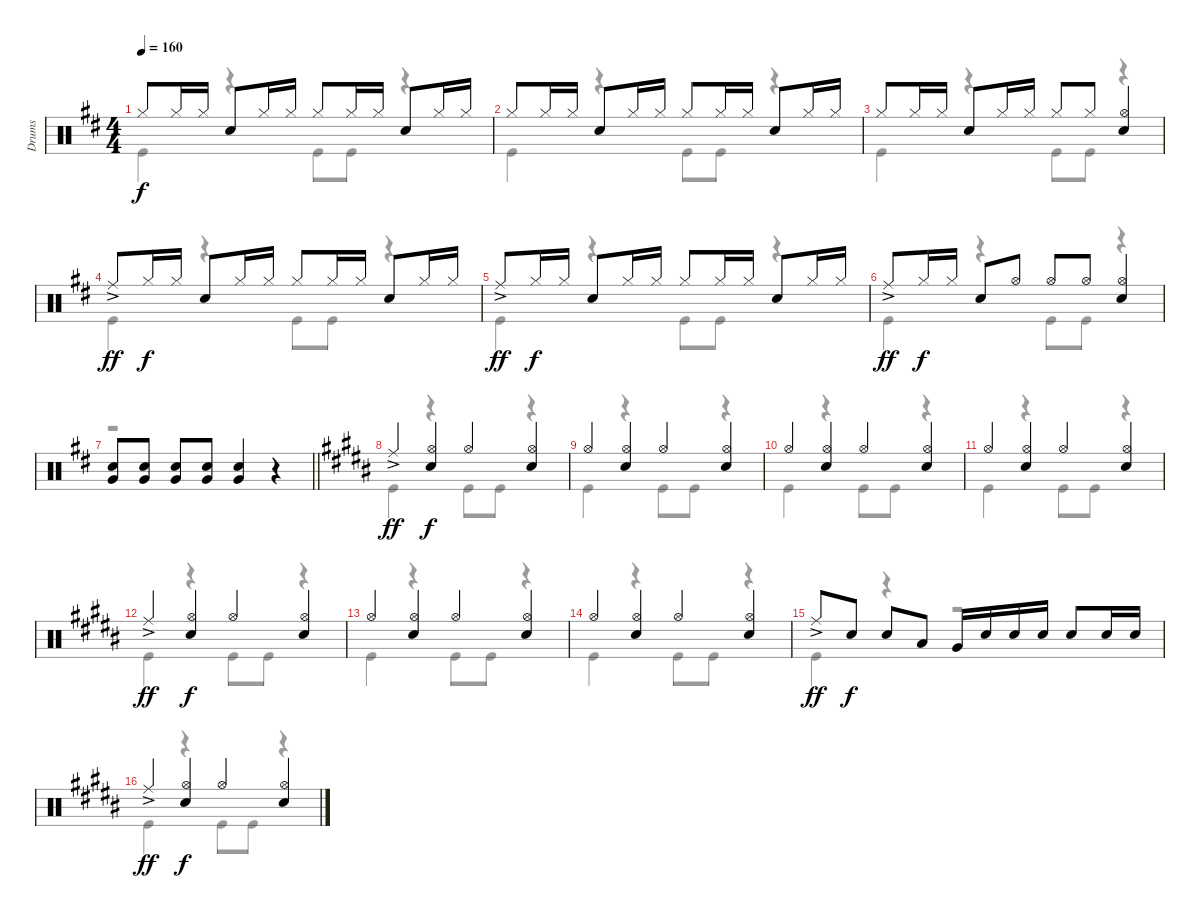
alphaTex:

\track ("Drums" "Drums") {instrument percussion}
\staff {score}
\articulation defaults
\voice
\ts (4 4)
\tempo 160
\clef neutral
\ks d "Hi-Hat (closed)".8{dy f} "Hi-Hat (closed)".16 "Hi-Hat (closed)".16 "Snare (hit) 2".8 "Hi-Hat (closed)".16 "Hi-Hat (closed)".16 "Hi-Hat (closed)".8 "Hi-Hat (closed)".16 "Hi-Hat (closed)".16 "Snare (hit) 2".8 "Hi-Hat (closed)".16 "Hi-Hat (closed)".16
|
"Hi-Hat (closed)".8 "Hi-Hat (closed)".16 "Hi-Hat (closed)".16 "Snare (hit) 2".8 "Hi-Hat (closed)".16 "Hi-Hat (closed)".16 "Hi-Hat (closed)".8 "Hi-Hat (closed)".16 "Hi-Hat (closed)".16 "Snare (hit) 2".8 "Hi-Hat (closed)".16 "Hi-Hat (closed)".16 |
"Hi-Hat (closed)".8 "Hi-Hat (closed)".16 "Hi-Hat (closed)".16 "Snare (hit) 2".8 "Hi-Hat (closed)".16 "Hi-Hat (closed)".16 "Hi-Hat (closed)".8 "Hi-Hat (closed)".8 ("Hi-Hat (open)" "Snare (hit) 2").4 |
"Ride (middle)"{ac}.8{dy ff} "Hi-Hat (closed)".16{dy f} "Hi-Hat (closed)".16 "Snare (hit) 2".8 "Hi-Hat (closed)".16 "Hi-Hat (closed)".16 "Hi-Hat (closed)".8 "Hi-Hat (closed)".16 "Hi-Hat (closed)".16 "Snare (hit) 2".8 "Hi-Hat (closed)".16 "Hi-Hat (closed)".16 |
"Ride (middle)"{ac}.8{dy ff} "Hi-Hat (closed)".16{dy f} "Hi-Hat (closed)".16 "Snare (hit) 2".8 "Hi-Hat (closed)".16 "Hi-Hat (closed)".16 "Hi-Hat (closed)".8 "Hi-Hat (closed)".16 "Hi-Hat (closed)".16 "Snare (hit) 2".8 "Hi-Hat (closed)".16 "Hi-Hat (closed)".16 |
"Ride (middle)"{ac}.8{dy ff} "Hi-Hat (closed)".16{dy f} "Hi-Hat (closed)".16 "Snare (hit) 2".8 "Hi-Hat (open)".8 "Hi-Hat (open)".8 "Hi-Hat (open)".8 ("Hi-Hat (open)" "Snare (hit) 2").4 |
\barLineRight lightlight
("Snare (hit) 2" "Very Low Tom (hit)").8 ("Snare (hit) 2" "Very Low Tom (hit)").8 ("Snare (hit) 2" "Very Low Tom (hit)").8 ("Snare (hit) 2" "Very Low Tom (hit)").8 ("Snare (hit) 2" "Very Low Tom (hit)").4 r.4 |
\ks b "Ride (middle)"{ac}.4{dy ff}
("Hi-Hat (open)" "Snare (hit) 2").4{dy f} "Hi-Hat (open)".4 ("Hi-Hat (open)" "Snare (hit) 2").4 |
"Hi-Hat (open)".4 ("Hi-Hat (open)" "Snare (hit) 2").4 "Hi-Hat (open)".4 ("Hi-Hat (open)" "Snare (hit) 2").4 |
"Hi-Hat (open)".4 ("Hi-Hat (open)" "Snare (hit) 2").4 "Hi-Hat (open)".4 ("Hi-Hat (open)" "Snare (hit) 2").4 |
"Hi-Hat (open)".4 ("Hi-Hat (open)" "Snare (hit) 2").4 "Hi-Hat (open)".4 ("Hi-Hat (open)" "Snare (hit) 2").4 |
"Ride (middle)"{ac}.4{dy ff} ("Hi-Hat (open)" "Snare (hit) 2").4{dy f} "Hi-Hat (open)".4 ("Hi-Hat (open)" "Snare (hit) 2").4 |
"Hi-Hat (open)".4 ("Hi-Hat (open)" "Snare (hit) 2").4 "Hi-Hat (open)".4 ("Hi-Hat (open)" "Snare (hit) 2").4 |
"Hi-Hat (open)".4 ("Hi-Hat (open)" "Snare (hit) 2").4 "Hi-Hat (open)".4 ("Hi-Hat (open)" "Snare (hit) 2").4 |
"Ride (middle)"{ac}.8{dy ff} "Snare (hit) 2".8{dy f} "Snare (hit) 2".8 "Low Tom (hit)".8 "Very Low Tom (hit)".16 "Snare (hit) 2".16 "Snare (hit) 2".16 "Snare (hit) 2".16 "Snare (hit) 2".8 "Snare (hit) 2".16 "Snare (hit) 2".16 |
"Ride (middle)"{ac}.4{dy ff} ("Hi-Hat (open)" "Snare (hit) 2").4{dy f} "Hi-Hat (open)".4 ("Hi-Hat (open)" "Snare (hit) 2").4
\voice
\clef neutral
\ottava regular
\simile none
\ks d "Kick (hit)".4{dy f}
r.4 "Kick (hit)".8 "Kick (hit)".8 r.4 |
"Kick (hit)".4 r.4 "Kick (hit)".8 "Kick (hit)".8 r.4 |
"Kick (hit)".4 r.4 "Kick (hit)".8 "Kick (hit)".8 r.4 |
"Kick (hit)".4 r.4 "Kick (hit)".8 "Kick (hit)".8 r.4 |
"Kick (hit)".4 r.4 "Kick (hit)".8 "Kick (hit)".8 r.4 |
"Kick (hit)".4 r.4 "Kick (hit)".8 "Kick (hit)".8 r.4 |
\barLineRight lightlight
r.1 |
\ks b "Kick (hit)".4
r.4 "Kick (hit)".8 "Kick (hit)".8 r.4 |
"Kick (hit)".4 r.4 "Kick (hit)".8 "Kick (hit)".8 r.4 |
"Kick (hit)".4 r.4 "Kick (hit)".8 "Kick (hit)".8 r.4 |
"Kick (hit)".4 r.4 "Kick (hit)".8 "Kick (hit)".8 r.4 |
"Kick (hit)".4 r.4 "Kick (hit)".8 "Kick (hit)".8 r.4 |
"Kick (hit)".4 r.4 "Kick (hit)".8 "Kick (hit)".8 r.4 |
"Kick (hit)".4 r.4 "Kick (hit)".8 "Kick (hit)".8 r.4 |
"Kick (hit)".4 r.4 r.2 |
"Kick (hit)".4 r.4 "Kick (hit)".8 "Kick (hit)".8 r.4
